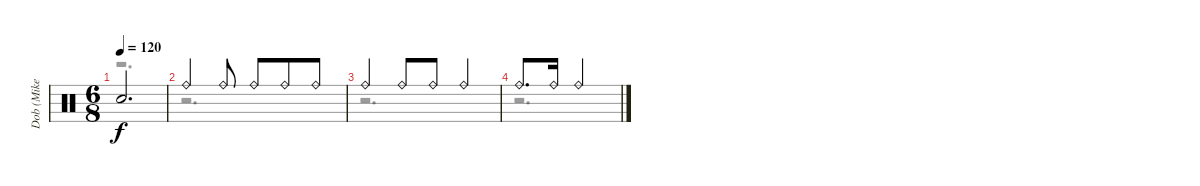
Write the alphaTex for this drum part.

\track ("Dob (Mike Terrana)" "Dob (Mike ") {instrument percussion}
\staff {score}
\articulation defaults
\voice
\ts (6 8)
\tempo 120
\clef neutral
\ks c "Snare (hit)"{t}.2{d dy f}
|
"Ride (bell)".4 "Ride (bell)".8 "Ride (bell)".8 "Ride (bell)".8 "Ride (bell)".8 |
"Ride (bell)".4 "Ride (bell)".8{beam merge} "Ride (bell)".8 "Ride (bell)".4 |
"Ride (bell)".8{d} "Ride (bell)".16 "Ride (bell)".2 |
\voice
\clef neutral
\ottava regular
\simile none
\ks c
r.2{d dy f} |
r.2{d} |
r.2{d} |
r.2{d} |
